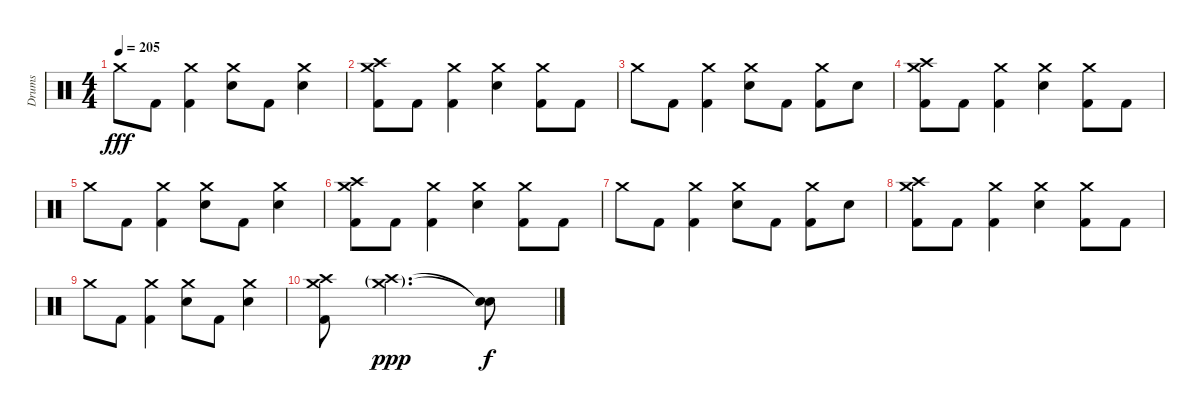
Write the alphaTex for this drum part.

\track ("Drums" "Drums") {instrument percussion}
\staff {score}
\articulation defaults
\ts (4 4)
\tempo 205
\clef neutral
\ks c "Crash medium (hit)".8{dy fff} "Kick (hit) 2".8
("Crash medium (hit)" "Kick (hit) 2").4 ("Crash medium (hit)" "Electric Snare (hit)").8 "Kick (hit) 2".8 ("Crash medium (hit)" "Electric Snare (hit)").4 |
("Crash medium (hit)" "Crash high (hit)" "Kick (hit) 2").8 "Kick (hit) 2".8 ("Crash medium (hit)" "Kick (hit) 2").4 ("Crash medium (hit)" "Electric Snare (hit)").4 ("Crash medium (hit)" "Kick (hit) 2").8 "Kick (hit) 2".8 |
"Crash medium (hit)".8 "Kick (hit) 2".8 ("Crash medium (hit)" "Kick (hit) 2").4 ("Crash medium (hit)" "Electric Snare (hit)").8 "Kick (hit) 2".8 ("Crash medium (hit)" "Kick (hit) 2").8 "Electric Snare (hit)".8 |
("Crash medium (hit)" "Crash high (hit)" "Kick (hit) 2").8 "Kick (hit) 2".8 ("Crash medium (hit)" "Kick (hit) 2").4 ("Crash medium (hit)" "Electric Snare (hit)").4 ("Crash medium (hit)" "Kick (hit) 2").8 "Kick (hit) 2".8 |
"Crash medium (hit)".8 "Kick (hit) 2".8 ("Crash medium (hit)" "Kick (hit) 2").4 ("Crash medium (hit)" "Electric Snare (hit)").8 "Kick (hit) 2".8 ("Crash medium (hit)" "Electric Snare (hit)").4 |
("Crash medium (hit)" "Crash high (hit)" "Kick (hit) 2").8 "Kick (hit) 2".8 ("Crash medium (hit)" "Kick (hit) 2").4 ("Crash medium (hit)" "Electric Snare (hit)").4 ("Crash medium (hit)" "Kick (hit) 2").8 "Kick (hit) 2".8 |
"Crash medium (hit)".8 "Kick (hit) 2".8 ("Crash medium (hit)" "Kick (hit) 2").4 ("Crash medium (hit)" "Electric Snare (hit)").8 "Kick (hit) 2".8 ("Crash medium (hit)" "Kick (hit) 2").8 "Electric Snare (hit)".8 |
("Crash medium (hit)" "Crash high (hit)" "Kick (hit) 2").8 "Kick (hit) 2".8 ("Crash medium (hit)" "Kick (hit) 2").4 ("Crash medium (hit)" "Electric Snare (hit)").4 ("Crash medium (hit)" "Kick (hit) 2").8 "Kick (hit) 2".8 |
"Crash medium (hit)".8 "Kick (hit) 2".8 ("Crash medium (hit)" "Kick (hit) 2").4 ("Crash medium (hit)" "Electric Snare (hit)").8 "Kick (hit) 2".8 ("Crash medium (hit)" "Electric Snare (hit)").4 |
("Crash medium (hit)" "Crash high (hit)" "Kick (hit) 2").8 ("Crash medium (hit)"{g} "Crash high (hit)"{g}).2{d dy ppp} ("Snare (hit)"{t} "Snare (hit)"{t}).8{dy f}
